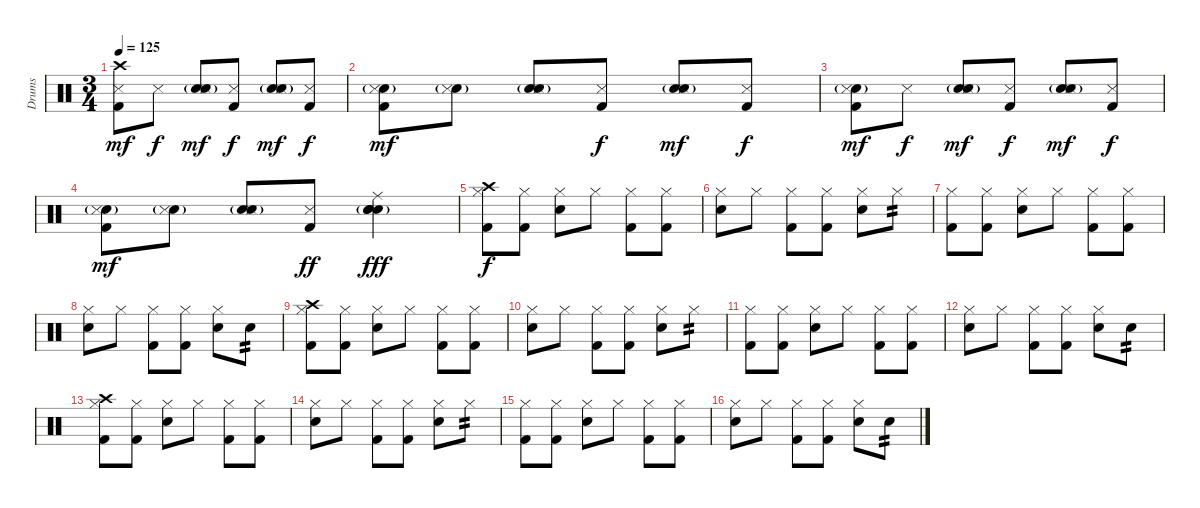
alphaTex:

\track ("Drums" "Drums") {instrument percussion}
\staff {score}
\articulation defaults
\ts (3 4)
\tempo 125
\clef neutral
\ks c
("Crash high (hit)" "Snare (side stick) 3" "Kick (hit) 2").8{dy mf} "Snare (side stick) 3".8{dy f} ("Hand Clap (hit)"{g} "Snare (side stick) 3" "Electric Snare (hit)").8{dy mf} ("Snare (side stick) 3" "Kick (hit) 2").8{dy f} ("Hand Clap (hit)"{g} "Snare (side stick) 3" "Electric Snare (hit)").8{dy mf} ("Snare (side stick) 3" "Kick (hit) 2").8{dy f} |
("Hand Clap (hit)"{g} "Snare (side stick) 3" "Kick (hit) 2").8{dy mf} ("Hand Clap (hit)"{g} "Snare (side stick) 3").8 ("Hand Clap (hit)"{g} "Snare (side stick) 3" "Electric Snare (hit)").8 ("Snare (side stick) 3" "Kick (hit) 2").8{dy f} ("Hand Clap (hit)"{g} "Snare (side stick) 3" "Electric Snare (hit)").8{dy mf} ("Snare (side stick) 3" "Kick (hit) 2").8{dy f} |
("Hand Clap (hit)"{g} "Snare (side stick) 3" "Kick (hit) 2").8{dy mf} "Snare (side stick) 3".8{dy f} ("Hand Clap (hit)"{g} "Snare (side stick) 3" "Electric Snare (hit)").8{dy mf} ("Snare (side stick) 3" "Kick (hit) 2").8{dy f} ("Hand Clap (hit)"{g} "Snare (side stick) 3" "Electric Snare (hit)").8{dy mf} ("Snare (side stick) 3" "Kick (hit) 2").8{dy f} |
("Hand Clap (hit)"{g} "Snare (side stick) 3" "Kick (hit) 2").8{dy mf} ("Hand Clap (hit)"{g} "Snare (side stick) 3").8 ("Hand Clap (hit)"{g} "Snare (side stick) 3" "Electric Snare (hit)").8 ("Snare (side stick) 3" "Kick (hit) 2").8{dy ff} ("Hand Clap (hit)"{g} "Ride (middle)" "Electric Snare (hit)" "Electric Snare (hit)").4{dy fff} |
("Crash high (hit)" "Hi-Hat (closed)" "Kick (hit) 2").8{dy f} ("Hi-Hat (closed)" "Kick (hit) 2").8 ("Hi-Hat (closed)" "Electric Snare (hit)").8 "Hi-Hat (closed)".8 ("Hi-Hat (closed)" "Kick (hit) 2").8 ("Hi-Hat (closed)" "Kick (hit) 2").8 |
("Hi-Hat (closed)" "Electric Snare (hit)").8 "Hi-Hat (closed)".8 ("Hi-Hat (closed)" "Kick (hit) 2").8 ("Hi-Hat (closed)" "Kick (hit) 2").8 ("Hi-Hat (closed)" "Electric Snare (hit)").8 "Hi-Hat (closed)".8{tp 2} |
("Hi-Hat (closed)" "Kick (hit) 2").8 ("Hi-Hat (closed)" "Kick (hit) 2").8 ("Hi-Hat (closed)" "Electric Snare (hit)").8 "Hi-Hat (closed)".8 ("Hi-Hat (closed)" "Kick (hit) 2").8 ("Hi-Hat (closed)" "Kick (hit) 2").8 |
("Hi-Hat (closed)" "Electric Snare (hit)").8 "Hi-Hat (closed)".8 ("Hi-Hat (closed)" "Kick (hit) 2").8 ("Hi-Hat (closed)" "Kick (hit) 2").8 ("Hi-Hat (closed)" "Electric Snare (hit)").8 "Electric Snare (hit)".8{tp 2} |
("Crash high (hit)" "Hi-Hat (closed)" "Kick (hit) 2").8 ("Hi-Hat (closed)" "Kick (hit) 2").8 ("Hi-Hat (closed)" "Electric Snare (hit)").8 "Hi-Hat (closed)".8 ("Hi-Hat (closed)" "Kick (hit) 2").8 ("Hi-Hat (closed)" "Kick (hit) 2").8 |
("Hi-Hat (closed)" "Electric Snare (hit)").8 "Hi-Hat (closed)".8 ("Hi-Hat (closed)" "Kick (hit) 2").8 ("Hi-Hat (closed)" "Kick (hit) 2").8 ("Hi-Hat (closed)" "Electric Snare (hit)").8 "Hi-Hat (closed)".8{tp 2} |
("Hi-Hat (closed)" "Kick (hit) 2").8 ("Hi-Hat (closed)" "Kick (hit) 2").8 ("Hi-Hat (closed)" "Electric Snare (hit)").8 "Hi-Hat (closed)".8 ("Hi-Hat (closed)" "Kick (hit) 2").8 ("Hi-Hat (closed)" "Kick (hit) 2").8 |
("Hi-Hat (closed)" "Electric Snare (hit)").8 "Hi-Hat (closed)".8 ("Hi-Hat (closed)" "Kick (hit) 2").8 ("Hi-Hat (closed)" "Kick (hit) 2").8 ("Hi-Hat (closed)" "Electric Snare (hit)").8 "Electric Snare (hit)".8{tp 2} |
("Crash high (hit)" "Hi-Hat (closed)" "Kick (hit) 2").8 ("Hi-Hat (closed)" "Kick (hit) 2").8 ("Hi-Hat (closed)" "Electric Snare (hit)").8 "Hi-Hat (closed)".8 ("Hi-Hat (closed)" "Kick (hit) 2").8 ("Hi-Hat (closed)" "Kick (hit) 2").8 |
("Hi-Hat (closed)" "Electric Snare (hit)").8 "Hi-Hat (closed)".8 ("Hi-Hat (closed)" "Kick (hit) 2").8 ("Hi-Hat (closed)" "Kick (hit) 2").8 ("Hi-Hat (closed)" "Electric Snare (hit)").8 "Hi-Hat (closed)".8{tp 2} |
("Hi-Hat (closed)" "Kick (hit) 2").8 ("Hi-Hat (closed)" "Kick (hit) 2").8 ("Hi-Hat (closed)" "Electric Snare (hit)").8 "Hi-Hat (closed)".8 ("Hi-Hat (closed)" "Kick (hit) 2").8 ("Hi-Hat (closed)" "Kick (hit) 2").8 |
("Hi-Hat (closed)" "Electric Snare (hit)").8 "Hi-Hat (closed)".8 ("Hi-Hat (closed)" "Kick (hit) 2").8 ("Hi-Hat (closed)" "Kick (hit) 2").8 ("Hi-Hat (closed)" "Electric Snare (hit)").8 "Electric Snare (hit)".8{tp 2}
